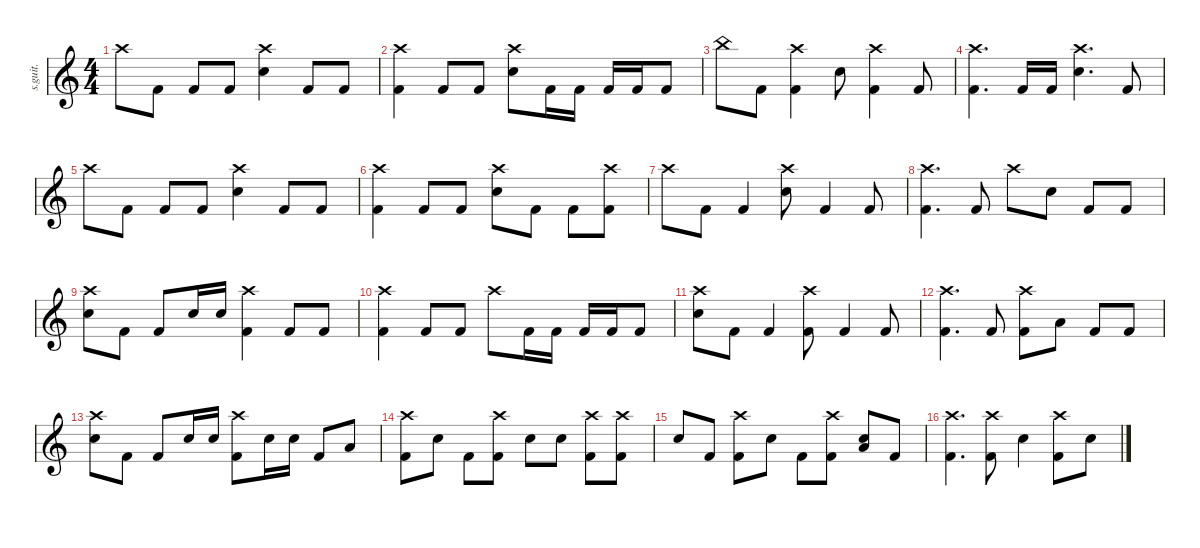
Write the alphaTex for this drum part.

\defaultSystemsLayout 4
\hideDynamics
\bracketExtendMode nobrackets
\track ("" "s.guit.") {instrument percussion}
\staff {score}
\articulation defaults
\ts (4 4)
\tempo (212 hide)
\clef g2
\ks c "Crash high (hit)".8{lyrics (0 "") lyrics (1 "") lyrics (2 "") lyrics (3 "") lyrics (4 "") dy f} "Kick (hit) 2".8{lyrics (0 "") lyrics (1 "") lyrics (2 "") lyrics (3 "") lyrics (4 "")} "Kick (hit) 2".8{lyrics (0 "") lyrics (1 "") lyrics (2 "") lyrics (3 "") lyrics (4 "")} "Kick (hit) 2".8{lyrics (0 "") lyrics (1 "") lyrics (2 "") lyrics (3 "") lyrics (4 "")}
("Snare (hit) 2" "Crash high (hit)").4{lyrics (0 "") lyrics (1 "") lyrics (2 "") lyrics (3 "") lyrics (4 "")} "Kick (hit) 2".8{lyrics (0 "") lyrics (1 "") lyrics (2 "") lyrics (3 "") lyrics (4 "")} "Kick (hit) 2".8{lyrics (0 "") lyrics (1 "") lyrics (2 "") lyrics (3 "") lyrics (4 "")} |
("Kick (hit) 2" "Crash high (hit)").4{lyrics (0 "") lyrics (1 "") lyrics (2 "") lyrics (3 "") lyrics (4 "")} "Kick (hit) 2".8{lyrics (0 "") lyrics (1 "") lyrics (2 "") lyrics (3 "") lyrics (4 "")} "Kick (hit) 2".8{lyrics (0 "") lyrics (1 "") lyrics (2 "") lyrics (3 "") lyrics (4 "")} ("Snare (hit) 2" "Crash high (hit)").8{lyrics (0 "") lyrics (1 "") lyrics (2 "") lyrics (3 "") lyrics (4 "")} "Kick (hit) 2".16{lyrics (0 "") lyrics (1 "") lyrics (2 "") lyrics (3 "") lyrics (4 "")} "Kick (hit) 2".16{lyrics (0 "") lyrics (1 "") lyrics (2 "") lyrics (3 "") lyrics (4 "")} "Kick (hit) 2".16{lyrics (0 "") lyrics (1 "") lyrics (2 "") lyrics (3 "") lyrics (4 "")} "Kick (hit) 2".16{lyrics (0 "") lyrics (1 "") lyrics (2 "") lyrics (3 "") lyrics (4 "")} "Kick (hit) 2".8{lyrics (0 "") lyrics (1 "") lyrics (2 "") lyrics (3 "") lyrics (4 "")} |
"China (hit)".8{lyrics (0 "") lyrics (1 "") lyrics (2 "") lyrics (3 "") lyrics (4 "")} "Kick (hit) 2".8{lyrics (0 "") lyrics (1 "") lyrics (2 "") lyrics (3 "") lyrics (4 "")} ("Kick (hit) 2" "Crash high (hit)").4{lyrics (0 "") lyrics (1 "") lyrics (2 "") lyrics (3 "") lyrics (4 "")} "Snare (hit) 2".8{lyrics (0 "") lyrics (1 "") lyrics (2 "") lyrics (3 "") lyrics (4 "")} ("Kick (hit) 2" "Crash high (hit)").4{lyrics (0 "") lyrics (1 "") lyrics (2 "") lyrics (3 "") lyrics (4 "")} "Kick (hit) 2".8{lyrics (0 "") lyrics (1 "") lyrics (2 "") lyrics (3 "") lyrics (4 "")} |
("Kick (hit) 2" "Crash high (hit)").4{d lyrics (0 "") lyrics (1 "") lyrics (2 "") lyrics (3 "") lyrics (4 "")} "Kick (hit) 2".16{lyrics (0 "") lyrics (1 "") lyrics (2 "") lyrics (3 "") lyrics (4 "")} "Kick (hit) 2".16{lyrics (0 "") lyrics (1 "") lyrics (2 "") lyrics (3 "") lyrics (4 "")} ("Snare (hit) 2" "Crash high (hit)").4{d lyrics (0 "") lyrics (1 "") lyrics (2 "") lyrics (3 "") lyrics (4 "")} "Kick (hit) 2".8{lyrics (0 "") lyrics (1 "") lyrics (2 "") lyrics (3 "") lyrics (4 "")} |
"Crash high (hit)".8{lyrics (0 "") lyrics (1 "") lyrics (2 "") lyrics (3 "") lyrics (4 "")} "Kick (hit) 2".8{lyrics (0 "") lyrics (1 "") lyrics (2 "") lyrics (3 "") lyrics (4 "")} "Kick (hit) 2".8{lyrics (0 "") lyrics (1 "") lyrics (2 "") lyrics (3 "") lyrics (4 "")} "Kick (hit) 2".8{lyrics (0 "") lyrics (1 "") lyrics (2 "") lyrics (3 "") lyrics (4 "")} ("Snare (hit) 2" "Crash high (hit)").4{lyrics (0 "") lyrics (1 "") lyrics (2 "") lyrics (3 "") lyrics (4 "")} "Kick (hit) 2".8{lyrics (0 "") lyrics (1 "") lyrics (2 "") lyrics (3 "") lyrics (4 "")} "Kick (hit) 2".8{lyrics (0 "") lyrics (1 "") lyrics (2 "") lyrics (3 "") lyrics (4 "")} |
("Kick (hit) 2" "Crash high (hit)").4{lyrics (0 "") lyrics (1 "") lyrics (2 "") lyrics (3 "") lyrics (4 "")} "Kick (hit) 2".8{lyrics (0 "") lyrics (1 "") lyrics (2 "") lyrics (3 "") lyrics (4 "")} "Kick (hit) 2".8{lyrics (0 "") lyrics (1 "") lyrics (2 "") lyrics (3 "") lyrics (4 "")} ("Snare (hit) 2" "Crash high (hit)").8{lyrics (0 "") lyrics (1 "") lyrics (2 "") lyrics (3 "") lyrics (4 "")} "Kick (hit) 2".8{lyrics (0 "") lyrics (1 "") lyrics (2 "") lyrics (3 "") lyrics (4 "")} "Kick (hit) 2".8{lyrics (0 "") lyrics (1 "") lyrics (2 "") lyrics (3 "") lyrics (4 "")} ("Kick (hit) 2" "Crash high (hit)").8{lyrics (0 "") lyrics (1 "") lyrics (2 "") lyrics (3 "") lyrics (4 "")} |
"Crash high (hit)".8{lyrics (0 "") lyrics (1 "") lyrics (2 "") lyrics (3 "") lyrics (4 "")} "Kick (hit) 2".8{lyrics (0 "") lyrics (1 "") lyrics (2 "") lyrics (3 "") lyrics (4 "")} "Kick (hit) 2".4{lyrics (0 "") lyrics (1 "") lyrics (2 "") lyrics (3 "") lyrics (4 "")} ("Snare (hit) 2" "Crash high (hit)").8{lyrics (0 "") lyrics (1 "") lyrics (2 "") lyrics (3 "") lyrics (4 "")} "Kick (hit) 2".4{lyrics (0 "") lyrics (1 "") lyrics (2 "") lyrics (3 "") lyrics (4 "")} "Kick (hit) 2".8{lyrics (0 "") lyrics (1 "") lyrics (2 "") lyrics (3 "") lyrics (4 "")} |
("Kick (hit) 2" "Crash high (hit)").4{d lyrics (0 "") lyrics (1 "") lyrics (2 "") lyrics (3 "") lyrics (4 "")} "Kick (hit) 2".8{lyrics (0 "") lyrics (1 "") lyrics (2 "") lyrics (3 "") lyrics (4 "")} "Crash high (hit)".8{lyrics (0 "") lyrics (1 "") lyrics (2 "") lyrics (3 "") lyrics (4 "")} "Snare (hit) 2".8{lyrics (0 "") lyrics (1 "") lyrics (2 "") lyrics (3 "") lyrics (4 "")} "Kick (hit) 2".8{lyrics (0 "") lyrics (1 "") lyrics (2 "") lyrics (3 "") lyrics (4 "")} "Kick (hit) 2".8{lyrics (0 "") lyrics (1 "") lyrics (2 "") lyrics (3 "") lyrics (4 "")} |
("Snare (hit) 2" "Crash high (hit)").8{lyrics (0 "") lyrics (1 "") lyrics (2 "") lyrics (3 "") lyrics (4 "")} "Kick (hit) 2".8{lyrics (0 "") lyrics (1 "") lyrics (2 "") lyrics (3 "") lyrics (4 "")} "Kick (hit) 2".8{lyrics (0 "") lyrics (1 "") lyrics (2 "") lyrics (3 "") lyrics (4 "")} "Snare (hit) 2".16{lyrics (0 "") lyrics (1 "") lyrics (2 "") lyrics (3 "") lyrics (4 "")} "Snare (hit) 2".16{lyrics (0 "") lyrics (1 "") lyrics (2 "") lyrics (3 "") lyrics (4 "")} ("Kick (hit) 2" "Crash high (hit)").4{lyrics (0 "") lyrics (1 "") lyrics (2 "") lyrics (3 "") lyrics (4 "")} "Kick (hit) 2".8{lyrics (0 "") lyrics (1 "") lyrics (2 "") lyrics (3 "") lyrics (4 "")} "Kick (hit) 2".8{lyrics (0 "") lyrics (1 "") lyrics (2 "") lyrics (3 "") lyrics (4 "")} |
("Kick (hit) 2" "Crash high (hit)").4{lyrics (0 "") lyrics (1 "") lyrics (2 "") lyrics (3 "") lyrics (4 "")} "Kick (hit) 2".8{lyrics (0 "") lyrics (1 "") lyrics (2 "") lyrics (3 "") lyrics (4 "")} "Kick (hit) 2".8{lyrics (0 "") lyrics (1 "") lyrics (2 "") lyrics (3 "") lyrics (4 "")} "Crash high (hit)".8{lyrics (0 "") lyrics (1 "") lyrics (2 "") lyrics (3 "") lyrics (4 "")} "Kick (hit) 2".16{lyrics (0 "") lyrics (1 "") lyrics (2 "") lyrics (3 "") lyrics (4 "")} "Kick (hit) 2".16{lyrics (0 "") lyrics (1 "") lyrics (2 "") lyrics (3 "") lyrics (4 "")} "Kick (hit) 2".16{lyrics (0 "") lyrics (1 "") lyrics (2 "") lyrics (3 "") lyrics (4 "")} "Kick (hit) 2".16{lyrics (0 "") lyrics (1 "") lyrics (2 "") lyrics (3 "") lyrics (4 "")} "Kick (hit) 2".8{lyrics (0 "") lyrics (1 "") lyrics (2 "") lyrics (3 "") lyrics (4 "")} |
("Snare (hit) 2" "Crash high (hit)").8{lyrics (0 "") lyrics (1 "") lyrics (2 "") lyrics (3 "") lyrics (4 "")} "Kick (hit) 2".8{lyrics (0 "") lyrics (1 "") lyrics (2 "") lyrics (3 "") lyrics (4 "")} "Kick (hit) 2".4{lyrics (0 "") lyrics (1 "") lyrics (2 "") lyrics (3 "") lyrics (4 "")} ("Kick (hit) 2" "Crash high (hit)").8{lyrics (0 "") lyrics (1 "") lyrics (2 "") lyrics (3 "") lyrics (4 "")} "Kick (hit) 2".4{lyrics (0 "") lyrics (1 "") lyrics (2 "") lyrics (3 "") lyrics (4 "")} "Kick (hit) 2".8{lyrics (0 "") lyrics (1 "") lyrics (2 "") lyrics (3 "") lyrics (4 "")} |
("Kick (hit) 2" "Crash high (hit)").4{d lyrics (0 "") lyrics (1 "") lyrics (2 "") lyrics (3 "") lyrics (4 "")} "Kick (hit) 2".8{lyrics (0 "") lyrics (1 "") lyrics (2 "") lyrics (3 "") lyrics (4 "")} ("Kick (hit) 2" "Crash high (hit)").8{lyrics (0 "") lyrics (1 "") lyrics (2 "") lyrics (3 "") lyrics (4 "")} "Low Floor Tom (hit)".8{lyrics (0 "") lyrics (1 "") lyrics (2 "") lyrics (3 "") lyrics (4 "")} "Kick (hit) 2".8{lyrics (0 "") lyrics (1 "") lyrics (2 "") lyrics (3 "") lyrics (4 "")} "Kick (hit) 2".8{lyrics (0 "") lyrics (1 "") lyrics (2 "") lyrics (3 "") lyrics (4 "")} |
("Snare (hit) 2" "Crash high (hit)").8{lyrics (0 "") lyrics (1 "") lyrics (2 "") lyrics (3 "") lyrics (4 "")} "Kick (hit) 2".8{lyrics (0 "") lyrics (1 "") lyrics (2 "") lyrics (3 "") lyrics (4 "")} "Kick (hit) 2".8{lyrics (0 "") lyrics (1 "") lyrics (2 "") lyrics (3 "") lyrics (4 "")} "Snare (hit) 2".16{lyrics (0 "") lyrics (1 "") lyrics (2 "") lyrics (3 "") lyrics (4 "")} "Snare (hit) 2".16{lyrics (0 "") lyrics (1 "") lyrics (2 "") lyrics (3 "") lyrics (4 "")} ("Kick (hit) 2" "Crash high (hit)").8{lyrics (0 "") lyrics (1 "") lyrics (2 "") lyrics (3 "") lyrics (4 "")} "Snare (hit) 2".16{lyrics (0 "") lyrics (1 "") lyrics (2 "") lyrics (3 "") lyrics (4 "")} "Snare (hit) 2".16{lyrics (0 "") lyrics (1 "") lyrics (2 "") lyrics (3 "") lyrics (4 "")} "Kick (hit) 2".8{lyrics (0 "") lyrics (1 "") lyrics (2 "") lyrics (3 "") lyrics (4 "")} "Low Floor Tom (hit)".8{lyrics (0 "") lyrics (1 "") lyrics (2 "") lyrics (3 "") lyrics (4 "")} |
("Kick (hit) 2" "Crash high (hit)").8{lyrics (0 "") lyrics (1 "") lyrics (2 "") lyrics (3 "") lyrics (4 "")} "Snare (hit) 2".8{lyrics (0 "") lyrics (1 "") lyrics (2 "") lyrics (3 "") lyrics (4 "")} "Kick (hit) 2".8{lyrics (0 "") lyrics (1 "") lyrics (2 "") lyrics (3 "") lyrics (4 "")} ("Kick (hit) 2" "Crash high (hit)").8{lyrics (0 "") lyrics (1 "") lyrics (2 "") lyrics (3 "") lyrics (4 "")} "Snare (hit) 2".8{lyrics (0 "") lyrics (1 "") lyrics (2 "") lyrics (3 "") lyrics (4 "")} "Snare (hit) 2".8{lyrics (0 "") lyrics (1 "") lyrics (2 "") lyrics (3 "") lyrics (4 "")} ("Kick (hit) 2" "Crash high (hit)").8{lyrics (0 "") lyrics (1 "") lyrics (2 "") lyrics (3 "") lyrics (4 "")} ("Kick (hit) 2" "Crash high (hit)").8{lyrics (0 "") lyrics (1 "") lyrics (2 "") lyrics (3 "") lyrics (4 "")} |
"Snare (hit) 2".8{lyrics (0 "") lyrics (1 "") lyrics (2 "") lyrics (3 "") lyrics (4 "")} "Kick (hit) 2".8{lyrics (0 "") lyrics (1 "") lyrics (2 "") lyrics (3 "") lyrics (4 "")} ("Kick (hit) 2" "Crash high (hit)").8{lyrics (0 "") lyrics (1 "") lyrics (2 "") lyrics (3 "") lyrics (4 "")} "Snare (hit) 2".8{lyrics (0 "") lyrics (1 "") lyrics (2 "") lyrics (3 "") lyrics (4 "")} "Kick (hit) 2".8{lyrics (0 "") lyrics (1 "") lyrics (2 "") lyrics (3 "") lyrics (4 "")} ("Kick (hit) 2" "Crash high (hit)").8{lyrics (0 "") lyrics (1 "") lyrics (2 "") lyrics (3 "") lyrics (4 "")} ("Snare (hit) 2" "Low Floor Tom (hit)").8{lyrics (0 "") lyrics (1 "") lyrics (2 "") lyrics (3 "") lyrics (4 "")} "Kick (hit) 2".8{lyrics (0 "") lyrics (1 "") lyrics (2 "") lyrics (3 "") lyrics (4 "")} |
("Kick (hit) 2" "Crash high (hit)").4{d lyrics (0 "") lyrics (1 "") lyrics (2 "") lyrics (3 "") lyrics (4 "")} ("Kick (hit) 2" "Crash high (hit)").8{lyrics (0 "") lyrics (1 "") lyrics (2 "") lyrics (3 "") lyrics (4 "")} "Snare (hit) 2".4{lyrics (0 "") lyrics (1 "") lyrics (2 "") lyrics (3 "") lyrics (4 "")} ("Kick (hit) 2" "Crash high (hit)").8{lyrics (0 "") lyrics (1 "") lyrics (2 "") lyrics (3 "") lyrics (4 "")} "Snare (hit) 2".8{lyrics (0 "") lyrics (1 "") lyrics (2 "") lyrics (3 "") lyrics (4 "")}
